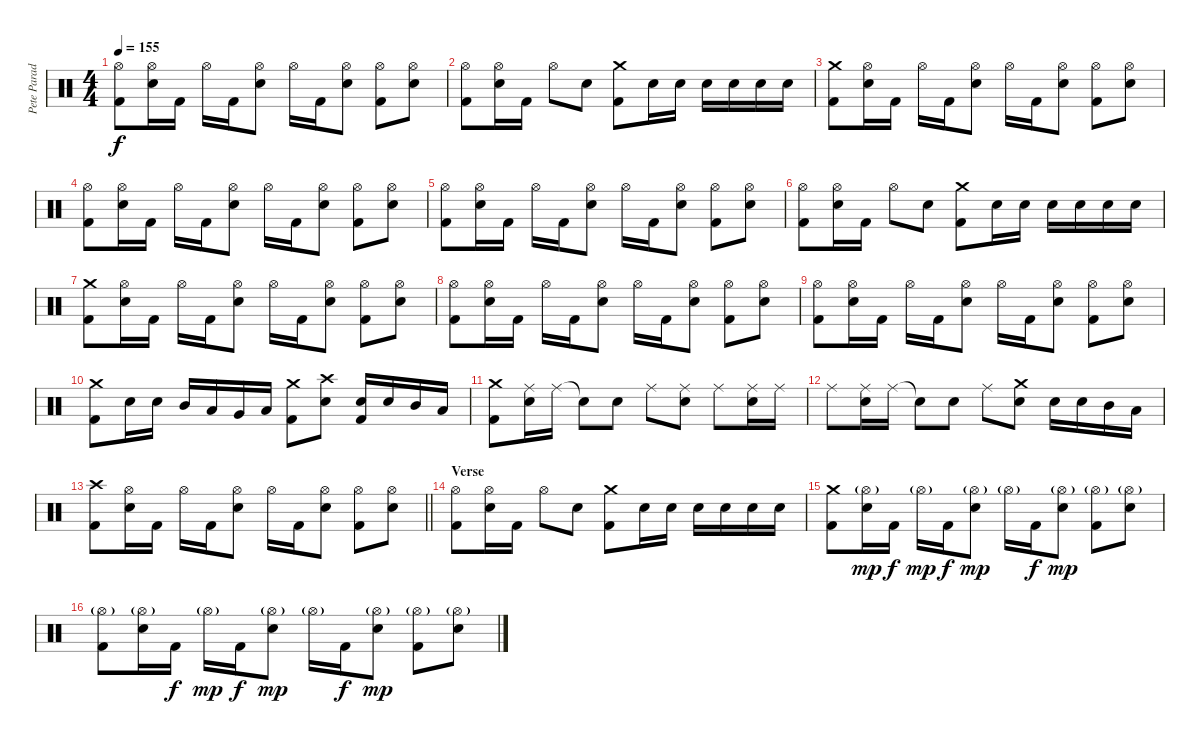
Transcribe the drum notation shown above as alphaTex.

\track ("Pete Parada - Drums" "Pete Parad") {instrument percussion}
\staff {score}
\articulation defaults
\ts (4 4)
\tempo 155
\clef neutral
\ks c
("Hi-Hat (open)" "Kick (hit) 2").8{dy f} ("Hi-Hat (open)" "Electric Snare (hit)").16 "Kick (hit) 2".16 "Hi-Hat (open)".16 "Kick (hit) 2".16 ("Hi-Hat (open)" "Electric Snare (hit)").8 "Hi-Hat (open)".16 "Kick (hit) 2".16 ("Hi-Hat (open)" "Electric Snare (hit)").8 ("Hi-Hat (open)" "Kick (hit) 2").8 ("Hi-Hat (open)" "Electric Snare (hit)").8 |
("Hi-Hat (open)" "Kick (hit) 2").8 ("Hi-Hat (open)" "Electric Snare (hit)").16 "Kick (hit) 2".16 "Hi-Hat (open)".8 "Electric Snare (hit)".8 ("Crash medium (hit)" "Kick (hit) 2").8 "Electric Snare (hit)".16 "Electric Snare (hit)".16 "Electric Snare (hit)".16 "Electric Snare (hit)".16 "Electric Snare (hit)".16 "Electric Snare (hit)".16 |
("Crash medium (hit)" "Kick (hit) 2").8 ("Hi-Hat (open)" "Electric Snare (hit)").16 "Kick (hit) 2".16 "Hi-Hat (open)".16 "Kick (hit) 2".16 ("Hi-Hat (open)" "Electric Snare (hit)").8 "Hi-Hat (open)".16 "Kick (hit) 2".16 ("Hi-Hat (open)" "Electric Snare (hit)").8 ("Hi-Hat (open)" "Kick (hit) 2").8 ("Hi-Hat (open)" "Electric Snare (hit)").8 |
("Hi-Hat (open)" "Kick (hit) 2").8 ("Hi-Hat (open)" "Electric Snare (hit)").16 "Kick (hit) 2".16 "Hi-Hat (open)".16 "Kick (hit) 2".16 ("Hi-Hat (open)" "Electric Snare (hit)").8 "Hi-Hat (open)".16 "Kick (hit) 2".16 ("Hi-Hat (open)" "Electric Snare (hit)").8 ("Hi-Hat (open)" "Kick (hit) 2").8 ("Hi-Hat (open)" "Electric Snare (hit)").8 |
("Hi-Hat (open)" "Kick (hit) 2").8 ("Hi-Hat (open)" "Electric Snare (hit)").16 "Kick (hit) 2".16 "Hi-Hat (open)".16 "Kick (hit) 2".16 ("Hi-Hat (open)" "Electric Snare (hit)").8 "Hi-Hat (open)".16 "Kick (hit) 2".16 ("Hi-Hat (open)" "Electric Snare (hit)").8 ("Hi-Hat (open)" "Kick (hit) 2").8 ("Hi-Hat (open)" "Electric Snare (hit)").8 |
("Hi-Hat (open)" "Kick (hit) 2").8 ("Hi-Hat (open)" "Electric Snare (hit)").16 "Kick (hit) 2".16 "Hi-Hat (open)".8 "Electric Snare (hit)".8 ("Crash medium (hit)" "Kick (hit) 2").8 "Electric Snare (hit)".16 "Electric Snare (hit)".16 "Electric Snare (hit)".16 "Electric Snare (hit)".16 "Electric Snare (hit)".16 "Electric Snare (hit)".16 |
("Crash medium (hit)" "Kick (hit) 2").8 ("Hi-Hat (open)" "Electric Snare (hit)").16 "Kick (hit) 2".16 "Hi-Hat (open)".16 "Kick (hit) 2".16 ("Hi-Hat (open)" "Electric Snare (hit)").8 "Hi-Hat (open)".16 "Kick (hit) 2".16 ("Hi-Hat (open)" "Electric Snare (hit)").8 ("Hi-Hat (open)" "Kick (hit) 2").8 ("Hi-Hat (open)" "Electric Snare (hit)").8 |
("Hi-Hat (open)" "Kick (hit) 2").8 ("Hi-Hat (open)" "Electric Snare (hit)").16 "Kick (hit) 2".16 "Hi-Hat (open)".16 "Kick (hit) 2".16 ("Hi-Hat (open)" "Electric Snare (hit)").8 "Hi-Hat (open)".16 "Kick (hit) 2".16 ("Hi-Hat (open)" "Electric Snare (hit)").8 ("Hi-Hat (open)" "Kick (hit) 2").8 ("Hi-Hat (open)" "Electric Snare (hit)").8 |
("Hi-Hat (open)" "Kick (hit) 2").8 ("Hi-Hat (open)" "Electric Snare (hit)").16 "Kick (hit) 2".16 "Hi-Hat (open)".16 "Kick (hit) 2".16 ("Hi-Hat (open)" "Electric Snare (hit)").8 "Hi-Hat (open)".16 "Kick (hit) 2".16 ("Hi-Hat (open)" "Electric Snare (hit)").8 ("Hi-Hat (open)" "Kick (hit) 2").8 ("Hi-Hat (open)" "Electric Snare (hit)").8 |
("Crash medium (hit)" "Kick (hit) 2").8 "Electric Snare (hit)".16 "Electric Snare (hit)".16 "Mid Tom (hit)".16 "Low Tom (hit)".16 "Very Low Tom (hit)".16 "Low Floor Tom (hit)".16 ("Crash medium (hit)" "Kick (hit) 2").8 ("Crash high (hit)" "Electric Snare (hit)").8 ("Electric Snare (hit)" "Kick (hit) 2").16 "Electric Snare (hit)".16 "Mid Tom (hit)".16 "Low Tom (hit)".16 |
("Crash medium (hit)" "Kick (hit) 2").8 ("Ride (middle)" "Electric Snare (hit)").16 "Ride (middle)".16 "Snare (hit)"{t}.8 "Electric Snare (hit)".8 "Ride (middle)".8 ("Ride (middle)" "Electric Snare (hit)").8 "Ride (middle)".8 ("Ride (middle)" "Electric Snare (hit)").16 "Ride (middle)".16 |
"Ride (middle)".8 ("Ride (middle)" "Electric Snare (hit)").16 "Ride (middle)".16 "Snare (hit)"{t}.8 "Electric Snare (hit)".8 "Ride (middle)".8 ("Crash medium (hit)" "Electric Snare (hit)").8 "Electric Snare (hit)".16 "Electric Snare (hit)".16 "Mid Tom (hit)".16 "Low Tom (hit)".16 |
\barLineRight lightlight
("Crash high (hit)" "Kick (hit) 2").8 ("Hi-Hat (open)" "Electric Snare (hit)").16 "Kick (hit) 2".16 "Hi-Hat (open)".16 "Kick (hit) 2".16 ("Hi-Hat (open)" "Electric Snare (hit)").8 "Hi-Hat (open)".16 "Kick (hit) 2".16 ("Hi-Hat (open)" "Electric Snare (hit)").8 ("Hi-Hat (open)" "Kick (hit) 2").8 ("Hi-Hat (open)" "Electric Snare (hit)").8 |
\section ("" "Verse")
("Hi-Hat (open)" "Kick (hit) 2").8 ("Hi-Hat (open)" "Electric Snare (hit)").16 "Kick (hit) 2".16 "Hi-Hat (open)".8 "Electric Snare (hit)".8 ("Crash medium (hit)" "Kick (hit) 2").8 "Electric Snare (hit)".16 "Electric Snare (hit)".16 "Electric Snare (hit)".16 "Electric Snare (hit)".16 "Electric Snare (hit)".16 "Electric Snare (hit)".16 |
("Crash medium (hit)" "Kick (hit) 2").8 ("Hi-Hat (open)"{g} "Electric Snare (hit)").16{dy mp} "Kick (hit) 2".16{dy f} "Hi-Hat (open)"{g}.16{dy mp} "Kick (hit) 2".16{dy f} ("Hi-Hat (open)"{g} "Electric Snare (hit)").8{dy mp} "Hi-Hat (open)"{g}.16 "Kick (hit) 2".16{dy f} ("Hi-Hat (open)"{g} "Electric Snare (hit)").8{dy mp} ("Hi-Hat (open)"{g} "Kick (hit) 2").8 ("Hi-Hat (open)"{g} "Electric Snare (hit)").8 |
("Hi-Hat (open)"{g} "Kick (hit) 2").8 ("Hi-Hat (open)"{g} "Electric Snare (hit)").16 "Kick (hit) 2".16{dy f} "Hi-Hat (open)"{g}.16{dy mp} "Kick (hit) 2".16{dy f} ("Hi-Hat (open)"{g} "Electric Snare (hit)").8{dy mp} "Hi-Hat (open)"{g}.16 "Kick (hit) 2".16{dy f} ("Hi-Hat (open)"{g} "Electric Snare (hit)").8{dy mp} ("Hi-Hat (open)"{g} "Kick (hit) 2").8 ("Hi-Hat (open)"{g} "Electric Snare (hit)").8
